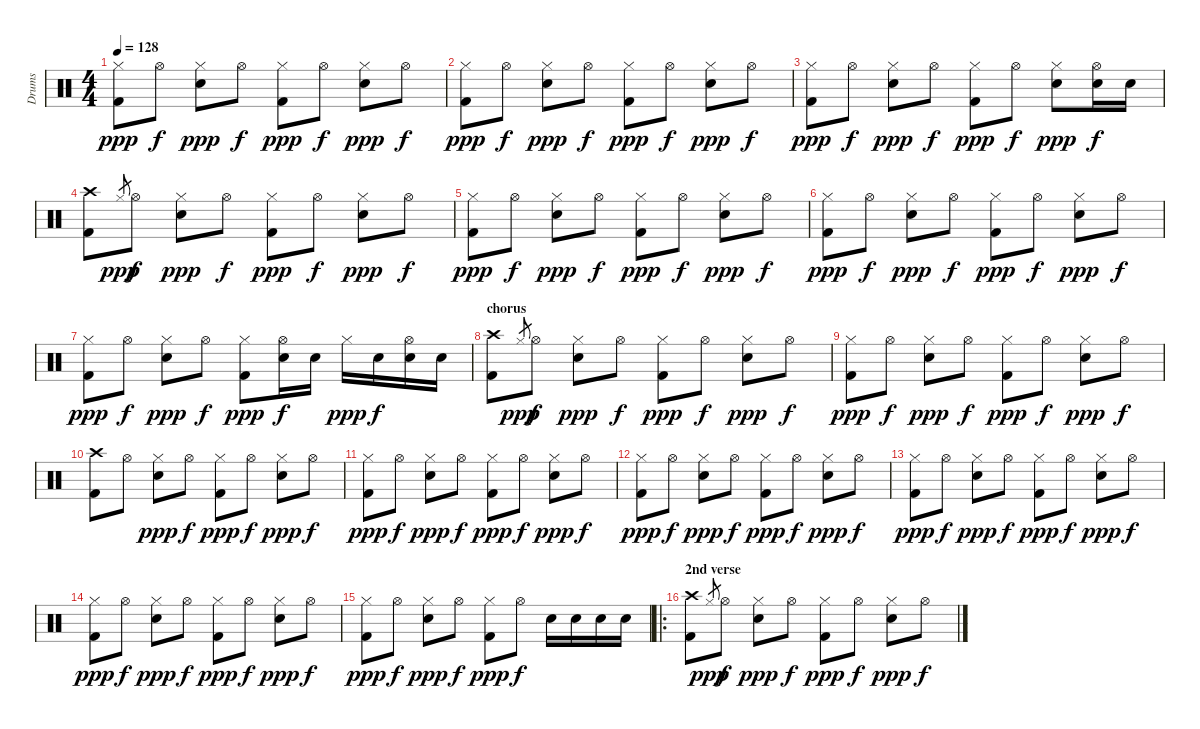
\track ("Drums" "Drums") {instrument percussion}
\staff {score}
\articulation defaults
\ts (4 4)
\tempo 128
\clef neutral
\ks c
("Hi-Hat (closed)" "Kick (hit) 2").8{dy ppp} "Hi-Hat (open)".8{dy f} ("Hi-Hat (closed)" "Snare (hit) 2").8{dy ppp} "Hi-Hat (open)".8{dy f} ("Hi-Hat (closed)" "Kick (hit) 2").8{dy ppp} "Hi-Hat (open)".8{dy f} ("Hi-Hat (closed)" "Snare (hit) 2").8{dy ppp} "Hi-Hat (open)".8{dy f} |
("Hi-Hat (closed)" "Kick (hit) 2").8{dy ppp} "Hi-Hat (open)".8{dy f} ("Hi-Hat (closed)" "Snare (hit) 2").8{dy ppp} "Hi-Hat (open)".8{dy f} ("Hi-Hat (closed)" "Kick (hit) 2").8{dy ppp} "Hi-Hat (open)".8{dy f} ("Hi-Hat (closed)" "Snare (hit) 2").8{dy ppp} "Hi-Hat (open)".8{dy f} |
("Hi-Hat (closed)" "Kick (hit) 2").8{dy ppp} "Hi-Hat (open)".8{dy f} ("Hi-Hat (closed)" "Snare (hit) 2").8{dy ppp} "Hi-Hat (open)".8{dy f} ("Hi-Hat (closed)" "Kick (hit) 2").8{dy ppp} "Hi-Hat (open)".8{dy f} ("Hi-Hat (closed)" "Snare (hit) 2").8{dy ppp} ("Hi-Hat (open)" "Snare (hit) 2").16{dy f} "Snare (hit) 2".16 |
("Crash high (hit)" "Kick (hit) 2").8 "Hi-Hat (closed)".8{gr dy ppp} "Hi-Hat (open)".8{dy f} ("Hi-Hat (closed)" "Snare (hit) 2").8{dy ppp} "Hi-Hat (open)".8{dy f} ("Hi-Hat (closed)" "Kick (hit) 2").8{dy ppp} "Hi-Hat (open)".8{dy f} ("Hi-Hat (closed)" "Snare (hit) 2").8{dy ppp} "Hi-Hat (open)".8{dy f} |
("Hi-Hat (closed)" "Kick (hit) 2").8{dy ppp} "Hi-Hat (open)".8{dy f} ("Hi-Hat (closed)" "Snare (hit) 2").8{dy ppp} "Hi-Hat (open)".8{dy f} ("Hi-Hat (closed)" "Kick (hit) 2").8{dy ppp} "Hi-Hat (open)".8{dy f} ("Hi-Hat (closed)" "Snare (hit) 2").8{dy ppp} "Hi-Hat (open)".8{dy f} |
("Hi-Hat (closed)" "Kick (hit) 2").8{dy ppp} "Hi-Hat (open)".8{dy f} ("Hi-Hat (closed)" "Snare (hit) 2").8{dy ppp} "Hi-Hat (open)".8{dy f} ("Hi-Hat (closed)" "Kick (hit) 2").8{dy ppp} "Hi-Hat (open)".8{dy f} ("Hi-Hat (closed)" "Snare (hit) 2").8{dy ppp} "Hi-Hat (open)".8{dy f} |
("Hi-Hat (closed)" "Kick (hit) 2").8{dy ppp} "Hi-Hat (open)".8{dy f} ("Hi-Hat (closed)" "Snare (hit) 2").8{dy ppp} "Hi-Hat (open)".8{dy f} ("Hi-Hat (closed)" "Kick (hit) 2").8{dy ppp} ("Hi-Hat (open)" "Snare (hit) 2").16{dy f} "Snare (hit) 2".16 "Hi-Hat (closed)".16{dy ppp} "Snare (hit) 2".16{dy f} ("Hi-Hat (open)" "Snare (hit) 2").16 "Snare (hit) 2".16 |
\section ("" "chorus")
("Crash high (hit)" "Kick (hit) 2").8 "Hi-Hat (closed)".8{gr dy ppp} "Hi-Hat (open)".8{dy f} ("Hi-Hat (closed)" "Snare (hit) 2").8{dy ppp} "Hi-Hat (open)".8{dy f} ("Hi-Hat (closed)" "Kick (hit) 2").8{dy ppp} "Hi-Hat (open)".8{dy f} ("Hi-Hat (closed)" "Snare (hit) 2").8{dy ppp} "Hi-Hat (open)".8{dy f} |
("Hi-Hat (closed)" "Kick (hit) 2").8{dy ppp} "Hi-Hat (open)".8{dy f} ("Hi-Hat (closed)" "Snare (hit) 2").8{dy ppp} "Hi-Hat (open)".8{dy f} ("Hi-Hat (closed)" "Kick (hit) 2").8{dy ppp} "Hi-Hat (open)".8{dy f} ("Hi-Hat (closed)" "Snare (hit) 2").8{dy ppp} "Hi-Hat (open)".8{dy f} |
("Crash high (hit)" "Kick (hit) 2").8 "Hi-Hat (open)".8 ("Hi-Hat (closed)" "Snare (hit) 2").8{dy ppp} "Hi-Hat (open)".8{dy f} ("Hi-Hat (closed)" "Kick (hit) 2").8{dy ppp} "Hi-Hat (open)".8{dy f} ("Hi-Hat (closed)" "Snare (hit) 2").8{dy ppp} "Hi-Hat (open)".8{dy f} |
("Hi-Hat (closed)" "Kick (hit) 2").8{dy ppp} "Hi-Hat (open)".8{dy f} ("Hi-Hat (closed)" "Snare (hit) 2").8{dy ppp} "Hi-Hat (open)".8{dy f} ("Hi-Hat (closed)" "Kick (hit) 2").8{dy ppp} "Hi-Hat (open)".8{dy f} ("Hi-Hat (closed)" "Snare (hit) 2").8{dy ppp} "Hi-Hat (open)".8{dy f} |
("Hi-Hat (closed)" "Kick (hit) 2").8{dy ppp} "Hi-Hat (open)".8{dy f} ("Hi-Hat (closed)" "Snare (hit) 2").8{dy ppp} "Hi-Hat (open)".8{dy f} ("Hi-Hat (closed)" "Kick (hit) 2").8{dy ppp} "Hi-Hat (open)".8{dy f} ("Hi-Hat (closed)" "Snare (hit) 2").8{dy ppp} "Hi-Hat (open)".8{dy f} |
("Hi-Hat (closed)" "Kick (hit) 2").8{dy ppp} "Hi-Hat (open)".8{dy f} ("Hi-Hat (closed)" "Snare (hit) 2").8{dy ppp} "Hi-Hat (open)".8{dy f} ("Hi-Hat (closed)" "Kick (hit) 2").8{dy ppp} "Hi-Hat (open)".8{dy f} ("Hi-Hat (closed)" "Snare (hit) 2").8{dy ppp} "Hi-Hat (open)".8{dy f} |
("Hi-Hat (closed)" "Kick (hit) 2").8{dy ppp} "Hi-Hat (open)".8{dy f} ("Hi-Hat (closed)" "Snare (hit) 2").8{dy ppp} "Hi-Hat (open)".8{dy f} ("Hi-Hat (closed)" "Kick (hit) 2").8{dy ppp} "Hi-Hat (open)".8{dy f} ("Hi-Hat (closed)" "Snare (hit) 2").8{dy ppp} "Hi-Hat (open)".8{dy f} |
("Hi-Hat (closed)" "Kick (hit) 2").8{dy ppp} "Hi-Hat (open)".8{dy f} ("Hi-Hat (closed)" "Snare (hit) 2").8{dy ppp} "Hi-Hat (open)".8{dy f} ("Hi-Hat (closed)" "Kick (hit) 2").8{dy ppp} "Hi-Hat (open)".8{dy f} "Snare (hit) 2".16 "Snare (hit) 2".16 "Snare (hit) 2".16 "Snare (hit) 2".16 |
\ro
\section ("" "2nd verse")
("Crash high (hit)" "Kick (hit) 2").8 "Hi-Hat (closed)".8{gr dy ppp} "Hi-Hat (open)".8{dy f} ("Hi-Hat (closed)" "Snare (hit) 2").8{dy ppp} "Hi-Hat (open)".8{dy f} ("Hi-Hat (closed)" "Kick (hit) 2").8{dy ppp} "Hi-Hat (open)".8{dy f} ("Hi-Hat (closed)" "Snare (hit) 2").8{dy ppp} "Hi-Hat (open)".8{dy f}
